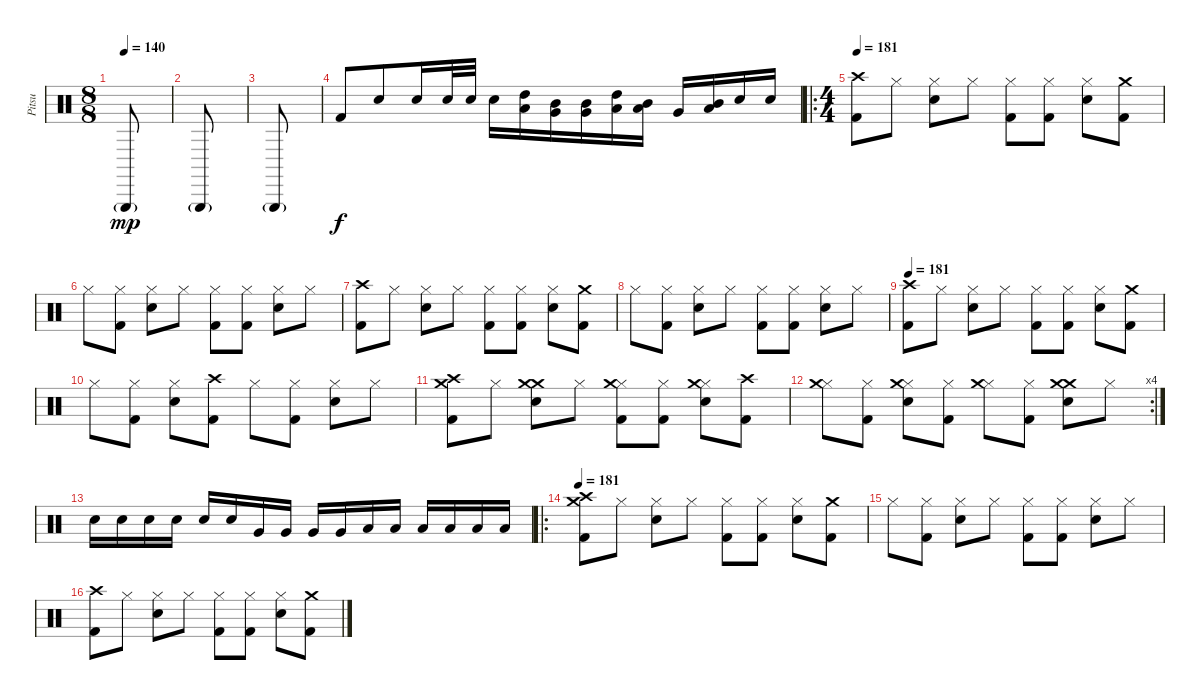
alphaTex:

\track ("Pitsu" "Pitsu") {instrument percussion}
\staff {score}
\articulation defaults
\ts (8 8)
\tempo 140
\clef neutral
\ks c "Triangle (hit)"{g}.8{dy mp}
|
"Triangle (hit)"{g}.8 |
"Triangle (hit)"{g}.8 |
"Kick (hit) 2".8{dy f} "Snare (hit) 2".8 "Electric Snare (hit)".16 "Electric Snare (hit)".32 "Electric Snare (hit)".32 "Electric Snare (hit)".16 ("High Tom (hit)" "Low Floor Tom (hit)").16 ("Mid Tom (hit)" "Very Low Tom (hit)").16 ("Mid Tom (hit)" "Very Low Tom (hit)").16 ("High Tom (hit)" "Low Floor Tom (hit)").16 ("Mid Tom (hit)" "Low Floor Tom (hit)").16 "Very Low Tom (hit)".16 ("Mid Tom (hit)" "Low Floor Tom (hit)").16 "Snare (hit) 2".16 "Snare (hit) 2".16 |
\ro
\ts (4 4)
\tempo 181
("Crash high (hit)" "Kick (hit) 2").8 "Hi-Hat (closed)".8 ("Hi-Hat (closed)" "Electric Snare (hit)").8 "Hi-Hat (closed)".8 ("Hi-Hat (closed)" "Kick (hit) 2").8 ("Hi-Hat (closed)" "Kick (hit) 2").8 ("Hi-Hat (closed)" "Electric Snare (hit)").8 ("Crash medium (hit)" "Kick (hit) 2").8 |
"Hi-Hat (closed)".8 ("Hi-Hat (closed)" "Kick (hit) 2").8 ("Hi-Hat (closed)" "Electric Snare (hit)").8 "Hi-Hat (closed)".8 ("Hi-Hat (closed)" "Kick (hit) 2").8 ("Hi-Hat (closed)" "Kick (hit) 2").8 ("Hi-Hat (closed)" "Electric Snare (hit)").8 "Hi-Hat (closed)".8 |
("Crash high (hit)" "Kick (hit) 2").8 "Hi-Hat (closed)".8 ("Hi-Hat (closed)" "Electric Snare (hit)").8 "Hi-Hat (closed)".8 ("Hi-Hat (closed)" "Kick (hit) 2").8 ("Hi-Hat (closed)" "Kick (hit) 2").8 ("Hi-Hat (closed)" "Electric Snare (hit)").8 ("Crash medium (hit)" "Kick (hit) 2").8 |
"Hi-Hat (closed)".8 ("Hi-Hat (closed)" "Kick (hit) 2").8 ("Hi-Hat (closed)" "Electric Snare (hit)").8 "Hi-Hat (closed)".8 ("Hi-Hat (closed)" "Kick (hit) 2").8 ("Hi-Hat (closed)" "Kick (hit) 2").8 ("Hi-Hat (closed)" "Electric Snare (hit)").8 "Hi-Hat (closed)".8 |
\tempo 181
("Crash high (hit)" "Kick (hit) 2").8 "Hi-Hat (closed)".8 ("Hi-Hat (closed)" "Electric Snare (hit)").8 "Hi-Hat (closed)".8 ("Hi-Hat (closed)" "Kick (hit) 2").8 ("Hi-Hat (closed)" "Kick (hit) 2").8 ("Hi-Hat (closed)" "Electric Snare (hit)").8 ("Crash medium (hit)" "Kick (hit) 2").8 |
"Hi-Hat (closed)".8 ("Hi-Hat (closed)" "Kick (hit) 2").8 ("Hi-Hat (closed)" "Electric Snare (hit)").8 ("Crash high (hit)" "Kick (hit) 2").8 "Hi-Hat (closed)".8 ("Hi-Hat (closed)" "Kick (hit) 2").8 ("Hi-Hat (closed)" "Electric Snare (hit)").8 "Hi-Hat (closed)".8 |
("Crash high (hit)" "Crash medium (hit)" "Kick (hit) 2").8 "Hi-Hat (closed)".8 ("Crash medium (hit)" "Crash medium (hit)" "Electric Snare (hit)").8 "Hi-Hat (closed)".8 ("Hi-Hat (closed)" "Crash medium (hit)" "Kick (hit) 2").8 ("Hi-Hat (closed)" "Kick (hit) 2").8 ("Hi-Hat (closed)" "Crash medium (hit)" "Electric Snare (hit)").8 ("Crash high (hit)" "Kick (hit) 2").8 |
\rc 4
("Hi-Hat (closed)" "Crash medium (hit)").8 ("Hi-Hat (closed)" "Kick (hit) 2").8 ("Hi-Hat (closed)" "Crash medium (hit)" "Electric Snare (hit)").8 ("Hi-Hat (closed)" "Kick (hit) 2").8 ("Hi-Hat (closed)" "Crash medium (hit)").8 ("Hi-Hat (closed)" "Kick (hit) 2").8 ("Crash medium (hit)" "Crash medium (hit)" "Electric Snare (hit)").8 "Hi-Hat (closed)".8 |
"Electric Snare (hit)".16 "Electric Snare (hit)".16 "Electric Snare (hit)".16 "Electric Snare (hit)".16 "Electric Snare (hit)".16 "Electric Snare (hit)".16 "Very Low Tom (hit)".16 "Very Low Tom (hit)".16 "Very Low Tom (hit)".16 "Very Low Tom (hit)".16 "Low Floor Tom (hit)".16 "Low Floor Tom (hit)".16 "Low Floor Tom (hit)".16 "Low Floor Tom (hit)".16 "Low Floor Tom (hit)".16 "Low Floor Tom (hit)".16 |
\ro
\tempo 181
("Crash high (hit)" "Crash medium (hit)" "Kick (hit) 2").8 "Hi-Hat (closed)".8 ("Hi-Hat (closed)" "Electric Snare (hit)").8 "Hi-Hat (closed)".8 ("Hi-Hat (closed)" "Kick (hit) 2").8 ("Hi-Hat (closed)" "Kick (hit) 2").8 ("Hi-Hat (closed)" "Electric Snare (hit)").8 ("Crash medium (hit)" "Kick (hit) 2").8 |
"Hi-Hat (closed)".8 ("Hi-Hat (closed)" "Kick (hit) 2").8 ("Hi-Hat (closed)" "Electric Snare (hit)").8 "Hi-Hat (closed)".8 ("Hi-Hat (closed)" "Kick (hit) 2").8 ("Hi-Hat (closed)" "Kick (hit) 2").8 ("Hi-Hat (closed)" "Electric Snare (hit)").8 "Hi-Hat (closed)".8 |
("Crash high (hit)" "Kick (hit) 2").8 "Hi-Hat (closed)".8 ("Hi-Hat (closed)" "Electric Snare (hit)").8 "Hi-Hat (closed)".8 ("Hi-Hat (closed)" "Kick (hit) 2").8 ("Hi-Hat (closed)" "Kick (hit) 2").8 ("Hi-Hat (closed)" "Electric Snare (hit)").8 ("Crash medium (hit)" "Kick (hit) 2").8
